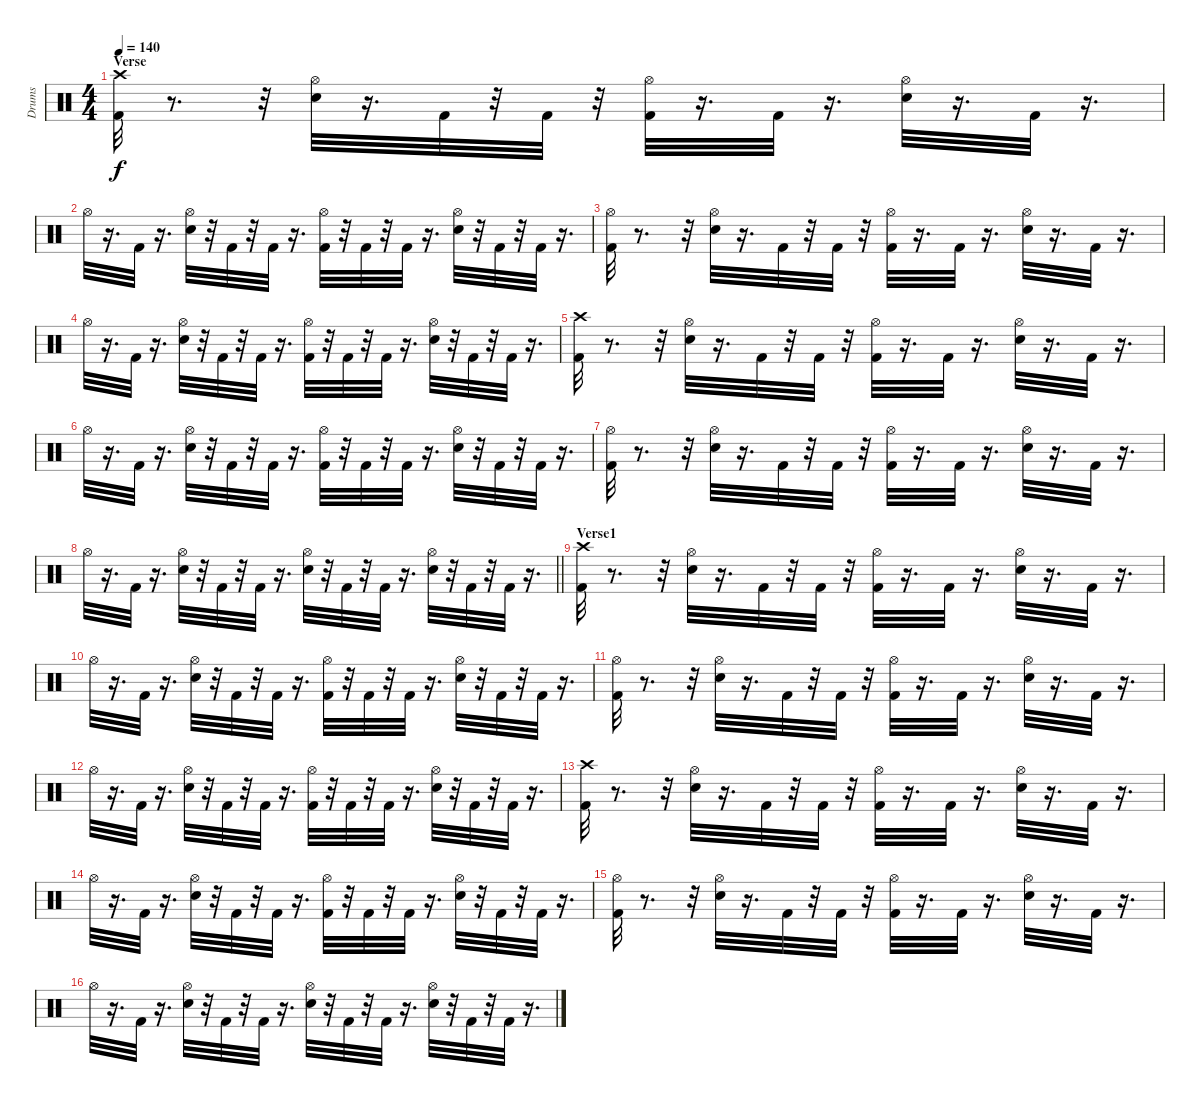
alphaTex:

\track ("Drums" "Drums") {instrument percussion}
\staff {score}
\articulation defaults
\ts (4 4)
\section ("" "Verse")
\tempo 140
\clef neutral
\ks c
("Kick (hit) 2" "Crash high (hit)").32{dy f} r.8{d} r.32 ("Snare (hit) 2" "Hi-Hat (open)").32 r.16{d} "Kick (hit) 2".32 r.32 "Kick (hit) 2".32 r.32 ("Kick (hit) 2" "Hi-Hat (open)").32 r.16{d} "Kick (hit) 2".32 r.16{d} ("Snare (hit) 2" "Hi-Hat (open)").32 r.16{d} "Kick (hit) 2".32 r.16{d} |
"Hi-Hat (open)".32 r.16{d} "Kick (hit) 2".32 r.16{d} ("Snare (hit) 2" "Hi-Hat (open)").32 r.32 "Kick (hit) 2".32 r.32 "Kick (hit) 2".32 r.16{d} ("Kick (hit) 2" "Hi-Hat (open)").32 r.32 "Kick (hit) 2".32 r.32 "Kick (hit) 2".32 r.16{d} ("Snare (hit) 2" "Hi-Hat (open)").32 r.32 "Kick (hit) 2".32 r.32 "Kick (hit) 2".32 r.16{d} |
("Kick (hit) 2" "Hi-Hat (open)").32 r.8{d} r.32 ("Snare (hit) 2" "Hi-Hat (open)").32 r.16{d} "Kick (hit) 2".32 r.32 "Kick (hit) 2".32 r.32 ("Kick (hit) 2" "Hi-Hat (open)").32 r.16{d} "Kick (hit) 2".32 r.16{d} ("Snare (hit) 2" "Hi-Hat (open)").32 r.16{d} "Kick (hit) 2".32 r.16{d} |
"Hi-Hat (open)".32 r.16{d} "Kick (hit) 2".32 r.16{d} ("Snare (hit) 2" "Hi-Hat (open)").32 r.32 "Kick (hit) 2".32 r.32 "Kick (hit) 2".32 r.16{d} ("Kick (hit) 2" "Hi-Hat (open)").32 r.32 "Kick (hit) 2".32 r.32 "Kick (hit) 2".32 r.16{d} ("Snare (hit) 2" "Hi-Hat (open)").32 r.32 "Kick (hit) 2".32 r.32 "Kick (hit) 2".32 r.16{d} |
("Kick (hit) 2" "Crash high (hit)").32 r.8{d} r.32 ("Snare (hit) 2" "Hi-Hat (open)").32 r.16{d} "Kick (hit) 2".32 r.32 "Kick (hit) 2".32 r.32 ("Kick (hit) 2" "Hi-Hat (open)").32 r.16{d} "Kick (hit) 2".32 r.16{d} ("Snare (hit) 2" "Hi-Hat (open)").32 r.16{d} "Kick (hit) 2".32 r.16{d} |
"Hi-Hat (open)".32 r.16{d} "Kick (hit) 2".32 r.16{d} ("Snare (hit) 2" "Hi-Hat (open)").32 r.32 "Kick (hit) 2".32 r.32 "Kick (hit) 2".32 r.16{d} ("Kick (hit) 2" "Hi-Hat (open)").32 r.32 "Kick (hit) 2".32 r.32 "Kick (hit) 2".32 r.16{d} ("Snare (hit) 2" "Hi-Hat (open)").32 r.32 "Kick (hit) 2".32 r.32 "Kick (hit) 2".32 r.16{d} |
("Kick (hit) 2" "Hi-Hat (open)").32 r.8{d} r.32 ("Snare (hit) 2" "Hi-Hat (open)").32 r.16{d} "Kick (hit) 2".32 r.32 "Kick (hit) 2".32 r.32 ("Kick (hit) 2" "Hi-Hat (open)").32 r.16{d} "Kick (hit) 2".32 r.16{d} ("Snare (hit) 2" "Hi-Hat (open)").32 r.16{d} "Kick (hit) 2".32 r.16{d} |
\barLineRight lightlight "Hi-Hat (open)".32
r.16{d} "Kick (hit) 2".32 r.16{d} ("Snare (hit) 2" "Hi-Hat (open)").32 r.32 "Kick (hit) 2".32 r.32 "Kick (hit) 2".32 r.16{d} ("Snare (hit) 2" "Hi-Hat (open)").32 r.32 "Kick (hit) 2".32 r.32 "Kick (hit) 2".32 r.16{d} ("Snare (hit) 2" "Hi-Hat (open)").32 r.32 "Kick (hit) 2".32 r.32 "Kick (hit) 2".32 r.16{d} |
\section ("" "Verse1")
("Kick (hit) 2" "Crash high (hit)").32 r.8{d} r.32 ("Snare (hit) 2" "Hi-Hat (open)").32 r.16{d} "Kick (hit) 2".32 r.32 "Kick (hit) 2".32 r.32 ("Kick (hit) 2" "Hi-Hat (open)").32 r.16{d} "Kick (hit) 2".32 r.16{d} ("Snare (hit) 2" "Hi-Hat (open)").32 r.16{d} "Kick (hit) 2".32 r.16{d} |
"Hi-Hat (open)".32 r.16{d} "Kick (hit) 2".32 r.16{d} ("Snare (hit) 2" "Hi-Hat (open)").32 r.32 "Kick (hit) 2".32 r.32 "Kick (hit) 2".32 r.16{d} ("Kick (hit) 2" "Hi-Hat (open)").32 r.32 "Kick (hit) 2".32 r.32 "Kick (hit) 2".32 r.16{d} ("Snare (hit) 2" "Hi-Hat (open)").32 r.32 "Kick (hit) 2".32 r.32 "Kick (hit) 2".32 r.16{d} |
("Kick (hit) 2" "Hi-Hat (open)").32 r.8{d} r.32 ("Snare (hit) 2" "Hi-Hat (open)").32 r.16{d} "Kick (hit) 2".32 r.32 "Kick (hit) 2".32 r.32 ("Kick (hit) 2" "Hi-Hat (open)").32 r.16{d} "Kick (hit) 2".32 r.16{d} ("Snare (hit) 2" "Hi-Hat (open)").32 r.16{d} "Kick (hit) 2".32 r.16{d} |
"Hi-Hat (open)".32 r.16{d} "Kick (hit) 2".32 r.16{d} ("Snare (hit) 2" "Hi-Hat (open)").32 r.32 "Kick (hit) 2".32 r.32 "Kick (hit) 2".32 r.16{d} ("Kick (hit) 2" "Hi-Hat (open)").32 r.32 "Kick (hit) 2".32 r.32 "Kick (hit) 2".32 r.16{d} ("Snare (hit) 2" "Hi-Hat (open)").32 r.32 "Kick (hit) 2".32 r.32 "Kick (hit) 2".32 r.16{d} |
("Kick (hit) 2" "Crash high (hit)").32 r.8{d} r.32 ("Snare (hit) 2" "Hi-Hat (open)").32 r.16{d} "Kick (hit) 2".32 r.32 "Kick (hit) 2".32 r.32 ("Kick (hit) 2" "Hi-Hat (open)").32 r.16{d} "Kick (hit) 2".32 r.16{d} ("Snare (hit) 2" "Hi-Hat (open)").32 r.16{d} "Kick (hit) 2".32 r.16{d} |
"Hi-Hat (open)".32 r.16{d} "Kick (hit) 2".32 r.16{d} ("Snare (hit) 2" "Hi-Hat (open)").32 r.32 "Kick (hit) 2".32 r.32 "Kick (hit) 2".32 r.16{d} ("Kick (hit) 2" "Hi-Hat (open)").32 r.32 "Kick (hit) 2".32 r.32 "Kick (hit) 2".32 r.16{d} ("Snare (hit) 2" "Hi-Hat (open)").32 r.32 "Kick (hit) 2".32 r.32 "Kick (hit) 2".32 r.16{d} |
("Kick (hit) 2" "Hi-Hat (open)").32 r.8{d} r.32 ("Snare (hit) 2" "Hi-Hat (open)").32 r.16{d} "Kick (hit) 2".32 r.32 "Kick (hit) 2".32 r.32 ("Kick (hit) 2" "Hi-Hat (open)").32 r.16{d} "Kick (hit) 2".32 r.16{d} ("Snare (hit) 2" "Hi-Hat (open)").32 r.16{d} "Kick (hit) 2".32 r.16{d} |
"Hi-Hat (open)".32 r.16{d} "Kick (hit) 2".32 r.16{d} ("Snare (hit) 2" "Hi-Hat (open)").32 r.32 "Kick (hit) 2".32 r.32 "Kick (hit) 2".32 r.16{d} ("Snare (hit) 2" "Hi-Hat (open)").32 r.32 "Kick (hit) 2".32 r.32 "Kick (hit) 2".32 r.16{d} ("Snare (hit) 2" "Hi-Hat (open)").32 r.32 "Kick (hit) 2".32 r.32 "Kick (hit) 2".32 r.16{d}
